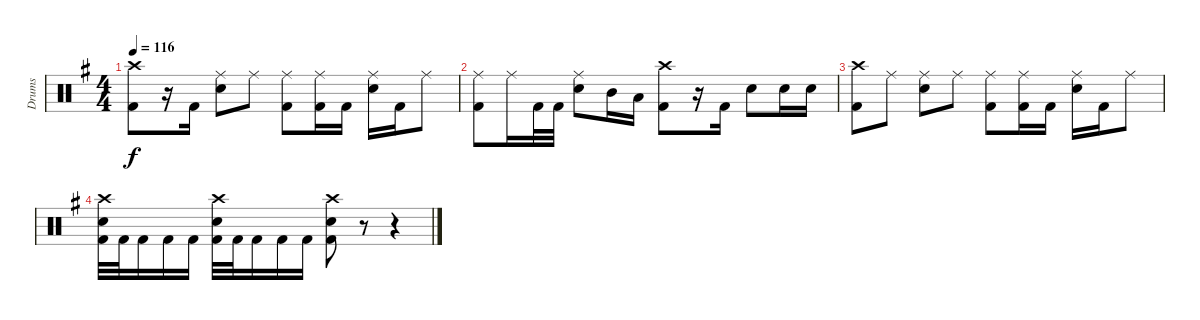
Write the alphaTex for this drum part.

\track ("Drums" "Drums") {instrument percussion}
\staff {score}
\articulation defaults
\ts (4 4)
\tempo 116
\clef neutral
\ks g
("Crash high (hit)" "Kick (hit) 2").8{dy f} r.16 "Kick (hit) 2".16 ("Ride (middle)" "Snare (hit) 2").8 "Ride (middle)".8 ("Ride (middle)" "Kick (hit) 2").8 ("Ride (middle)" "Kick (hit) 2").16 "Kick (hit) 2".16 ("Ride (middle)" "Snare (hit) 2").16 "Kick (hit) 2".16 "Ride (middle)".8 |
("Ride (middle)" "Kick (hit) 2").8 "Ride (middle)".16 "Kick (hit) 2".32 "Kick (hit) 2".32 ("Ride (middle)" "Snare (hit) 2").8 "Mid Tom (hit)".16 "Low Tom (hit)".16 ("Crash high (hit)" "Kick (hit) 2").8 r.16 "Kick (hit) 2".16 "Snare (hit) 2".8 "Snare (hit) 2".16 "Snare (hit) 2".16 |
("Crash high (hit)" "Kick (hit) 2").8 "Ride (middle)".8 ("Ride (middle)" "Snare (hit) 2").8 "Ride (middle)".8 ("Ride (middle)" "Kick (hit) 2").8 ("Ride (middle)" "Kick (hit) 2").16 "Kick (hit) 2".16 ("Ride (middle)" "Snare (hit) 2").16 "Kick (hit) 2".16 "Ride (middle)".8 |
("Crash high (hit)" "Snare (hit) 2" "Kick (hit) 2").32 "Kick (hit) 2".32 "Kick (hit) 2".16 "Kick (hit) 2".16 "Kick (hit) 2".16 ("Crash high (hit)" "Snare (hit) 2" "Kick (hit) 2").32 "Kick (hit) 2".32 "Kick (hit) 2".16 "Kick (hit) 2".16 "Kick (hit) 2".16 ("Crash high (hit)" "Snare (hit) 2" "Kick (hit) 2").8 r.8 r.4
